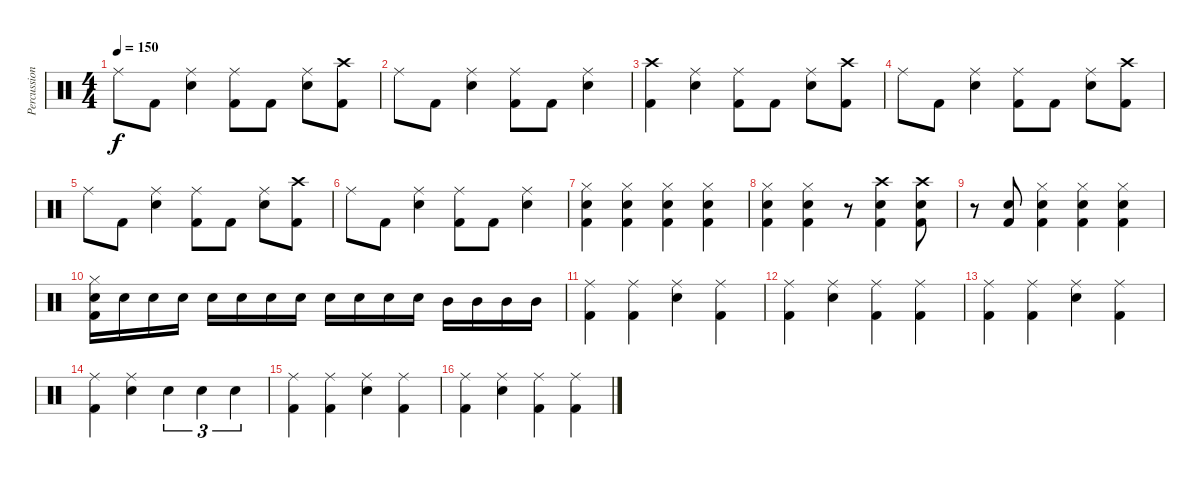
\track ("Percussions" "Percussion") {instrument percussion}
\staff {score}
\articulation defaults
\ts (4 4)
\tempo 150
\clef neutral
\ks c "Ride (middle)".8{dy f} "Kick (hit) 2".8
("Ride (middle)" "Electric Snare (hit)").4 ("Ride (middle)" "Kick (hit) 2").8 "Kick (hit) 2".8 ("Ride (middle)" "Electric Snare (hit)").8 ("Crash high (hit)" "Kick (hit) 2").8 |
"Ride (middle)".8 "Kick (hit) 2".8 ("Ride (middle)" "Electric Snare (hit)").4 ("Ride (middle)" "Kick (hit) 2").8 "Kick (hit) 2".8 ("Ride (middle)" "Electric Snare (hit)").4 |
("Crash high (hit)" "Kick (hit) 2").4 ("Ride (middle)" "Electric Snare (hit)").4 ("Ride (middle)" "Kick (hit) 2").8 "Kick (hit) 2".8 ("Ride (middle)" "Electric Snare (hit)").8 ("Crash high (hit)" "Kick (hit) 2").8 |
"Ride (middle)".8 "Kick (hit) 2".8 ("Ride (middle)" "Electric Snare (hit)").4 ("Ride (middle)" "Kick (hit) 2").8 "Kick (hit) 2".8 ("Ride (middle)" "Electric Snare (hit)").8 ("Crash high (hit)" "Kick (hit) 2").8 |
"Ride (middle)".8 "Kick (hit) 2".8 ("Ride (middle)" "Electric Snare (hit)").4 ("Ride (middle)" "Kick (hit) 2").8 "Kick (hit) 2".8 ("Ride (middle)" "Electric Snare (hit)").8 ("Crash high (hit)" "Kick (hit) 2").8 |
"Ride (middle)".8 "Kick (hit) 2".8 ("Ride (middle)" "Electric Snare (hit)").4 ("Ride (middle)" "Kick (hit) 2").8 "Kick (hit) 2".8 ("Ride (middle)" "Electric Snare (hit)").4 |
("Hi-Hat (closed)" "Electric Snare (hit)" "Kick (hit) 2").4 ("Hi-Hat (closed)" "Electric Snare (hit)" "Kick (hit) 2").4 ("Hi-Hat (closed)" "Electric Snare (hit)" "Kick (hit) 2").4 ("Hi-Hat (closed)" "Electric Snare (hit)" "Kick (hit) 2").4 |
("Hi-Hat (closed)" "Electric Snare (hit)" "Kick (hit) 2").4 ("Hi-Hat (closed)" "Electric Snare (hit)" "Kick (hit) 2").4 r.8 ("Crash high (hit)" "Electric Snare (hit)" "Kick (hit) 2").4 ("Crash high (hit)" "Electric Snare (hit)" "Kick (hit) 2").8 |
r.8 ("Electric Snare (hit)" "Kick (hit) 2").8 ("Hi-Hat (closed)" "Electric Snare (hit)" "Kick (hit) 2").4 ("Hi-Hat (closed)" "Electric Snare (hit)" "Kick (hit) 2").4 ("Hi-Hat (closed)" "Electric Snare (hit)" "Kick (hit) 2").4 |
("Hi-Hat (closed)" "Electric Snare (hit)" "Kick (hit) 2").16 "Electric Snare (hit)".16 "Electric Snare (hit)".16 "Electric Snare (hit)".16 "Electric Snare (hit)".16 "Electric Snare (hit)".16 "Electric Snare (hit)".16 "Electric Snare (hit)".16 "Electric Snare (hit)".16 "Electric Snare (hit)".16 "Electric Snare (hit)".16 "Electric Snare (hit)".16 "Mid Tom (hit)".16 "Mid Tom (hit)".16 "Mid Tom (hit)".16 "Mid Tom (hit)".16 |
("Ride (middle)" "Kick (hit) 2").4 ("Ride (middle)" "Kick (hit) 2").4 ("Ride (middle)" "Electric Snare (hit)").4 ("Ride (middle)" "Kick (hit) 2").4 |
("Ride (middle)" "Kick (hit) 2").4 ("Ride (middle)" "Electric Snare (hit)").4 ("Ride (middle)" "Kick (hit) 2").4 ("Ride (middle)" "Kick (hit) 2").4 |
("Ride (middle)" "Kick (hit) 2").4 ("Ride (middle)" "Kick (hit) 2").4 ("Ride (middle)" "Electric Snare (hit)").4 ("Ride (middle)" "Kick (hit) 2").4 |
("Ride (middle)" "Kick (hit) 2").4 ("Ride (middle)" "Electric Snare (hit)").4 "Electric Snare (hit)".4{tu (3 2)} "Electric Snare (hit)".4{tu (3 2)} "Electric Snare (hit)".4{tu (3 2)} |
("Ride (middle)" "Kick (hit) 2").4 ("Ride (middle)" "Kick (hit) 2").4 ("Ride (middle)" "Electric Snare (hit)").4 ("Ride (middle)" "Kick (hit) 2").4 |
("Ride (middle)" "Kick (hit) 2").4 ("Ride (middle)" "Electric Snare (hit)").4 ("Ride (middle)" "Kick (hit) 2").4 ("Ride (middle)" "Kick (hit) 2").4
